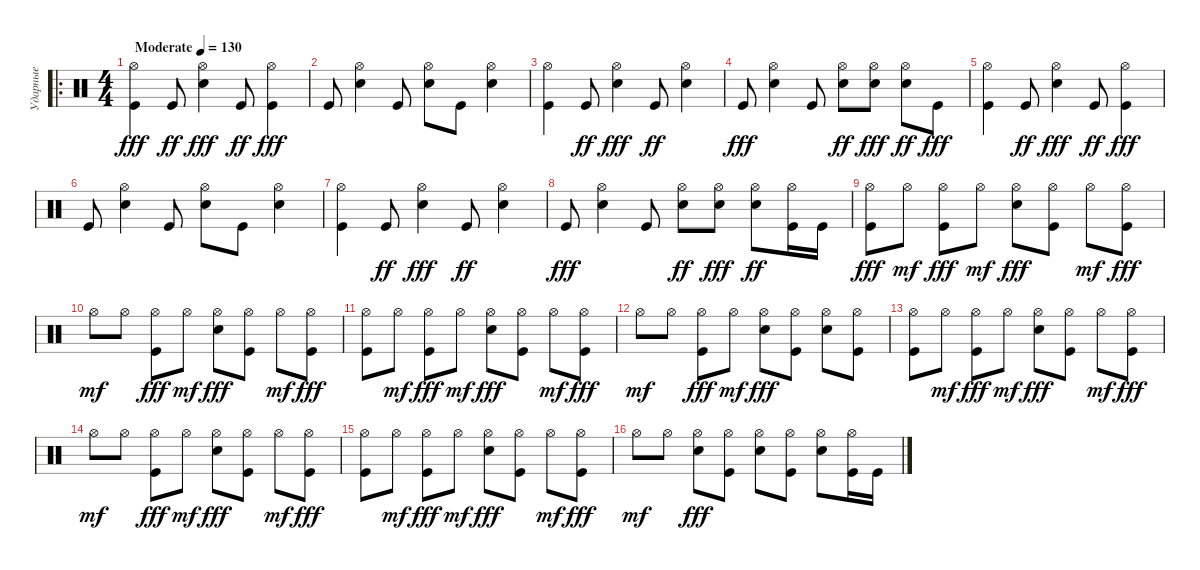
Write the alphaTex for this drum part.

\track ("Ударные" "Ударные") {instrument percussion}
\staff {score}
\articulation defaults
\ro
\ts (4 4)
\tempo (130 "Moderate")
\clef neutral
\ks c
("Hi-Hat (open)" "Kick (hit)").4{dy fff} "Kick (hit)".8{dy ff} ("Hi-Hat (open)" "Electric Snare (hit)").4{dy fff} "Kick (hit)".8{dy ff} ("Hi-Hat (open)" "Kick (hit)").4{dy fff} |
"Kick (hit)".8 ("Hi-Hat (open)" "Electric Snare (hit)").4 "Kick (hit)".8 ("Hi-Hat (open)" "Electric Snare (hit)").8 "Kick (hit)".8 ("Hi-Hat (open)" "Electric Snare (hit)").4 |
("Hi-Hat (open)" "Kick (hit)").4 "Kick (hit)".8{dy ff} ("Hi-Hat (open)" "Electric Snare (hit)").4{dy fff} "Kick (hit)".8{dy ff} ("Hi-Hat (open)" "Electric Snare (hit)").4 |
"Kick (hit)".8{dy fff} ("Hi-Hat (open)" "Electric Snare (hit)").4 "Kick (hit)".8 ("Hi-Hat (open)" "Electric Snare (hit)").8{dy ff} ("Hi-Hat (open)" "Electric Snare (hit)").8{dy fff} ("Hi-Hat (open)" "Electric Snare (hit)").8{dy ff} "Kick (hit)".8{dy fff} |
("Hi-Hat (open)" "Kick (hit)").4 "Kick (hit)".8{dy ff} ("Hi-Hat (open)" "Electric Snare (hit)").4{dy fff} "Kick (hit)".8{dy ff} ("Hi-Hat (open)" "Kick (hit)").4{dy fff} |
"Kick (hit)".8 ("Hi-Hat (open)" "Electric Snare (hit)").4 "Kick (hit)".8 ("Hi-Hat (open)" "Electric Snare (hit)").8 "Kick (hit)".8 ("Hi-Hat (open)" "Electric Snare (hit)").4 |
("Hi-Hat (open)" "Kick (hit)").4 "Kick (hit)".8{dy ff} ("Hi-Hat (open)" "Electric Snare (hit)").4{dy fff} "Kick (hit)".8{dy ff} ("Hi-Hat (open)" "Electric Snare (hit)").4 |
"Kick (hit)".8{dy fff} ("Hi-Hat (open)" "Electric Snare (hit)").4 "Kick (hit)".8 ("Hi-Hat (open)" "Electric Snare (hit)").8{dy ff} ("Hi-Hat (open)" "Electric Snare (hit)").8{dy fff} ("Hi-Hat (open)" "Electric Snare (hit)").8{dy ff} ("Hi-Hat (open)" "Kick (hit)").16 "Kick (hit)".16 |
("Hi-Hat (open)" "Kick (hit)").8{dy fff} "Hi-Hat (open)".8{dy mf} ("Hi-Hat (open)" "Kick (hit)").8{dy fff} "Hi-Hat (open)".8{dy mf} ("Hi-Hat (open)" "Electric Snare (hit)").8{dy fff} ("Hi-Hat (open)" "Kick (hit)").8 "Hi-Hat (open)".8{dy mf} ("Hi-Hat (open)" "Kick (hit)").8{dy fff} |
"Hi-Hat (open)".8{dy mf} "Hi-Hat (open)".8 ("Hi-Hat (open)" "Kick (hit)").8{dy fff} "Hi-Hat (open)".8{dy mf} ("Hi-Hat (open)" "Electric Snare (hit)").8{dy fff} ("Hi-Hat (open)" "Kick (hit)").8 "Hi-Hat (open)".8{dy mf} ("Hi-Hat (open)" "Kick (hit)").8{dy fff} |
("Hi-Hat (open)" "Kick (hit)").8 "Hi-Hat (open)".8{dy mf} ("Hi-Hat (open)" "Kick (hit)").8{dy fff} "Hi-Hat (open)".8{dy mf} ("Hi-Hat (open)" "Electric Snare (hit)").8{dy fff} ("Hi-Hat (open)" "Kick (hit)").8 "Hi-Hat (open)".8{dy mf} ("Hi-Hat (open)" "Kick (hit)").8{dy fff} |
"Hi-Hat (open)".8{dy mf} "Hi-Hat (open)".8 ("Hi-Hat (open)" "Kick (hit)").8{dy fff} "Hi-Hat (open)".8{dy mf} ("Hi-Hat (open)" "Electric Snare (hit)").8{dy fff} ("Hi-Hat (open)" "Kick (hit)").8 ("Hi-Hat (open)" "Electric Snare (hit)").8 ("Hi-Hat (open)" "Kick (hit)").8 |
("Hi-Hat (open)" "Kick (hit)").8 "Hi-Hat (open)".8{dy mf} ("Hi-Hat (open)" "Kick (hit)").8{dy fff} "Hi-Hat (open)".8{dy mf} ("Hi-Hat (open)" "Electric Snare (hit)").8{dy fff} ("Hi-Hat (open)" "Kick (hit)").8 "Hi-Hat (open)".8{dy mf} ("Hi-Hat (open)" "Kick (hit)").8{dy fff} |
"Hi-Hat (open)".8{dy mf} "Hi-Hat (open)".8 ("Hi-Hat (open)" "Kick (hit)").8{dy fff} "Hi-Hat (open)".8{dy mf} ("Hi-Hat (open)" "Electric Snare (hit)").8{dy fff} ("Hi-Hat (open)" "Kick (hit)").8 "Hi-Hat (open)".8{dy mf} ("Hi-Hat (open)" "Kick (hit)").8{dy fff} |
("Hi-Hat (open)" "Kick (hit)").8 "Hi-Hat (open)".8{dy mf} ("Hi-Hat (open)" "Kick (hit)").8{dy fff} "Hi-Hat (open)".8{dy mf} ("Hi-Hat (open)" "Electric Snare (hit)").8{dy fff} ("Hi-Hat (open)" "Kick (hit)").8 "Hi-Hat (open)".8{dy mf} ("Hi-Hat (open)" "Kick (hit)").8{dy fff} |
"Hi-Hat (open)".8{dy mf} "Hi-Hat (open)".8 ("Hi-Hat (open)" "Electric Snare (hit)").8{dy fff} ("Hi-Hat (open)" "Kick (hit)").8 ("Hi-Hat (open)" "Electric Snare (hit)").8 ("Hi-Hat (open)" "Kick (hit)").8 ("Hi-Hat (open)" "Electric Snare (hit)").8 ("Hi-Hat (open)" "Kick (hit)").16 "Kick (hit)".16
